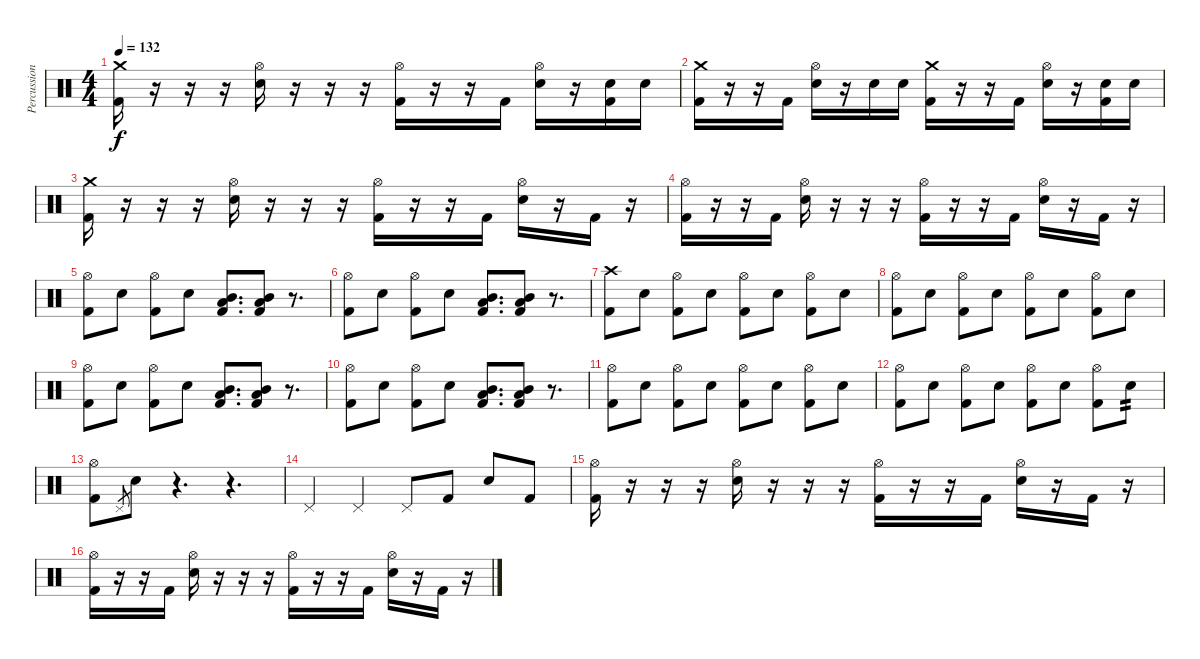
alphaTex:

\track ("Percussion" "Percussion") {instrument percussion}
\staff {score}
\articulation defaults
\ts (4 4)
\tempo 132
\clef neutral
\ks c
("Crash medium (hit)" "Kick (hit) 2").16{dy f} r.16 r.16 r.16 ("Hi-Hat (open)" "Snare (hit) 2").16 r.16 r.16 r.16 ("Hi-Hat (open)" "Kick (hit) 2").16 r.16 r.16 "Kick (hit) 2".16 ("Hi-Hat (open)" "Snare (hit) 2").16 r.16 ("Kick (hit) 2" "Snare (hit) 2").16 "Snare (hit) 2".16 |
("Crash medium (hit)" "Kick (hit) 2").16 r.16 r.16 "Kick (hit) 2".16 ("Hi-Hat (open)" "Snare (hit) 2").16 r.16 "Snare (hit) 2".16 "Snare (hit) 2".16 ("Crash medium (hit)" "Kick (hit) 2").16 r.16 r.16 "Kick (hit) 2".16 ("Hi-Hat (open)" "Snare (hit) 2").16 r.16 ("Kick (hit) 2" "Snare (hit) 2").16 "Snare (hit) 2".16 |
("Crash medium (hit)" "Kick (hit) 2").16 r.16 r.16 r.16 ("Hi-Hat (open)" "Snare (hit) 2").16 r.16 r.16 r.16 ("Hi-Hat (open)" "Kick (hit) 2").16 r.16 r.16 "Kick (hit) 2".16 ("Hi-Hat (open)" "Snare (hit) 2").16 r.16 "Kick (hit) 2".16 r.16 |
("Hi-Hat (open)" "Kick (hit) 2").16 r.16 r.16 "Kick (hit) 2".16 ("Hi-Hat (open)" "Snare (hit) 2").16 r.16 r.16 r.16 ("Hi-Hat (open)" "Kick (hit) 2").16 r.16 r.16 "Kick (hit) 2".16 ("Hi-Hat (open)" "Snare (hit) 2").16 r.16 "Kick (hit) 2".16 r.16 |
("Hi-Hat (open)" "Kick (hit) 2").8 "Snare (hit) 2".8 ("Hi-Hat (open)" "Kick (hit) 2").8 "Snare (hit) 2".8 ("Mid Tom (hit)" "Low Tom (hit)" "Kick (hit) 2").8{d} ("Mid Tom (hit)" "Low Tom (hit)" "Kick (hit) 2").8 r.8{d} |
("Hi-Hat (open)" "Kick (hit) 2").8 "Snare (hit) 2".8 ("Hi-Hat (open)" "Kick (hit) 2").8 "Snare (hit) 2".8 ("Mid Tom (hit)" "Low Tom (hit)" "Kick (hit) 2").8{d} ("Mid Tom (hit)" "Low Tom (hit)" "Kick (hit) 2").8 r.8{d} |
("Crash high (hit)" "Kick (hit) 2").8 "Snare (hit) 2".8 ("Hi-Hat (open)" "Kick (hit) 2").8 "Snare (hit) 2".8 ("Hi-Hat (open)" "Kick (hit) 2").8 "Snare (hit) 2".8 ("Hi-Hat (open)" "Kick (hit) 2").8 "Snare (hit) 2".8 |
("Hi-Hat (open)" "Kick (hit) 2").8 "Snare (hit) 2".8 ("Hi-Hat (open)" "Kick (hit) 2").8 "Snare (hit) 2".8 ("Hi-Hat (open)" "Kick (hit) 2").8 "Snare (hit) 2".8 ("Hi-Hat (open)" "Kick (hit) 2").8 "Snare (hit) 2".8 |
("Hi-Hat (open)" "Kick (hit) 2").8 "Snare (hit) 2".8 ("Hi-Hat (open)" "Kick (hit) 2").8 "Snare (hit) 2".8 ("Mid Tom (hit)" "Low Tom (hit)" "Kick (hit) 2").8{d} ("Mid Tom (hit)" "Low Tom (hit)" "Kick (hit) 2").8 r.8{d} |
("Hi-Hat (open)" "Kick (hit) 2").8 "Snare (hit) 2".8 ("Hi-Hat (open)" "Kick (hit) 2").8 "Snare (hit) 2".8 ("Mid Tom (hit)" "Low Tom (hit)" "Kick (hit) 2").8{d} ("Mid Tom (hit)" "Low Tom (hit)" "Kick (hit) 2").8 r.8{d} |
("Hi-Hat (open)" "Kick (hit) 2").8 "Snare (hit) 2".8 ("Hi-Hat (open)" "Kick (hit) 2").8 "Snare (hit) 2".8 ("Hi-Hat (open)" "Kick (hit) 2").8 "Snare (hit) 2".8 ("Hi-Hat (open)" "Kick (hit) 2").8 "Snare (hit) 2".8 |
("Hi-Hat (open)" "Kick (hit) 2").8 "Snare (hit) 2".8 ("Hi-Hat (open)" "Kick (hit) 2").8 "Snare (hit) 2".8 ("Hi-Hat (open)" "Kick (hit) 2").8 "Snare (hit) 2".8 ("Hi-Hat (open)" "Kick (hit) 2").8 "Snare (hit) 2".8{tp 2} |
("Hi-Hat (open)" "Kick (hit) 2").8 "Pedal Hi-Hat (hit)".8{gr} "Snare (hit)".8 r.4{d} r.4{d} |
"Pedal Hi-Hat (hit)".4 "Pedal Hi-Hat (hit)".4 "Pedal Hi-Hat (hit)".8 "Kick (hit) 2".8 "Snare (hit) 2".8 "Kick (hit) 2".8 |
("Hi-Hat (open)" "Kick (hit) 2").16 r.16 r.16 r.16 ("Hi-Hat (open)" "Snare (hit) 2").16 r.16 r.16 r.16 ("Hi-Hat (open)" "Kick (hit) 2").16 r.16 r.16 "Kick (hit) 2".16 ("Hi-Hat (open)" "Snare (hit) 2").16 r.16 "Kick (hit) 2".16 r.16 |
("Hi-Hat (open)" "Kick (hit) 2").16 r.16 r.16 "Kick (hit) 2".16 ("Hi-Hat (open)" "Snare (hit) 2").16 r.16 r.16 r.16 ("Hi-Hat (open)" "Kick (hit) 2").16 r.16 r.16 "Kick (hit) 2".16 ("Hi-Hat (open)" "Snare (hit) 2").16 r.16 "Kick (hit) 2".16 r.16
